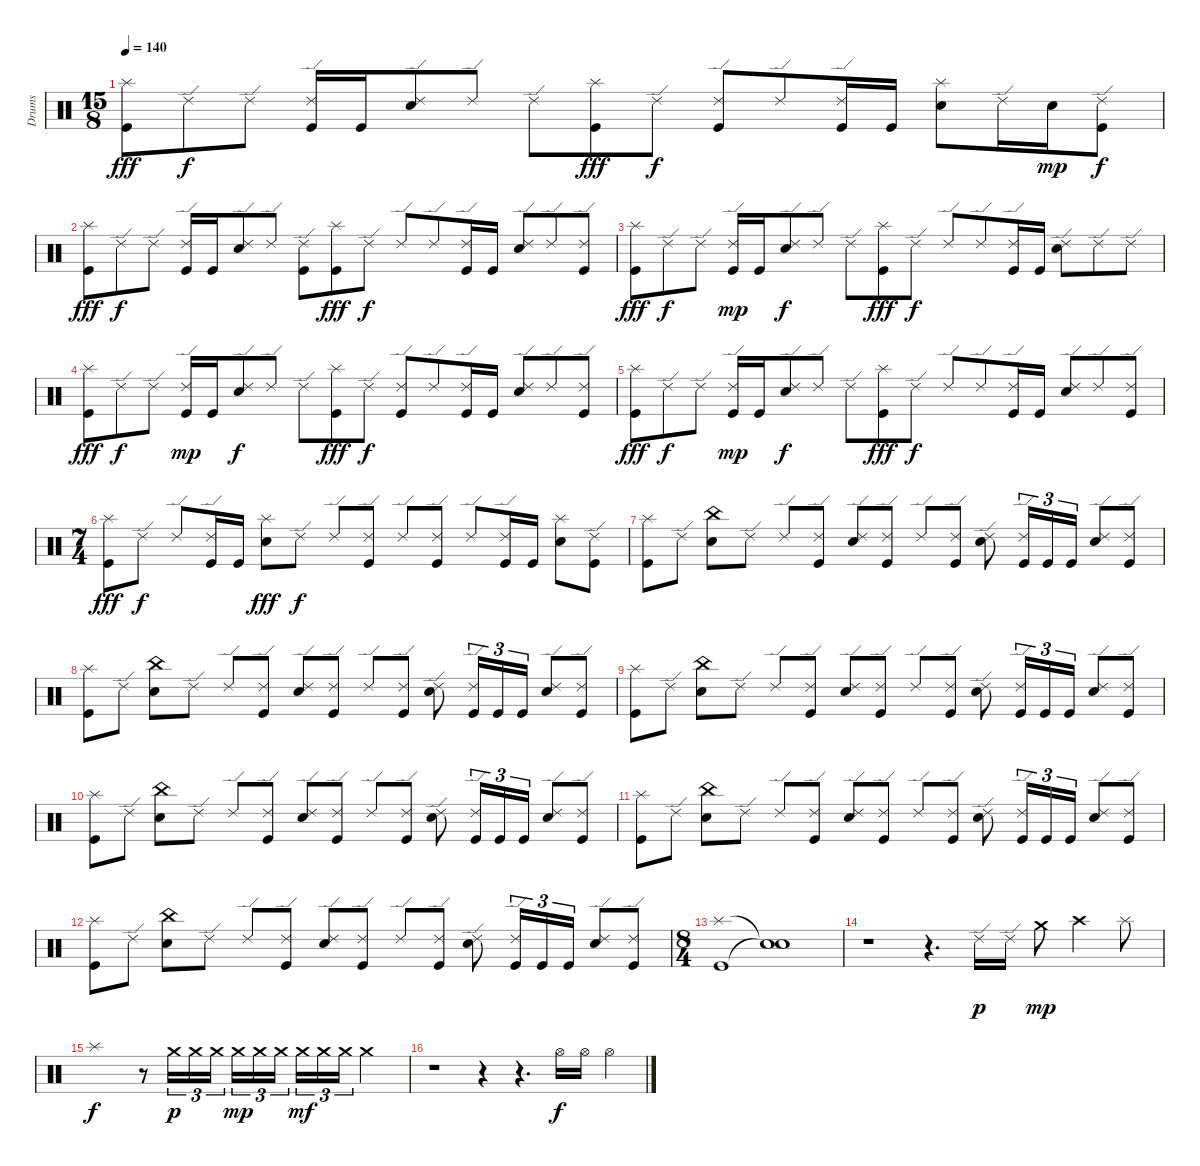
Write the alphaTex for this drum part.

\track ("Drums" "Drums") {instrument percussion}
\staff {score}
\articulation defaults
\ts (15 8)
\tempo 140
\clef neutral
\ks c
("Splash (hit)" "Kick (hit)").8{dy fff} "Ride (edge) 2".8{dy f} "Ride (edge) 2".8 ("Ride (edge) 2" "Kick (hit)").16 "Kick (hit)".16 ("Ride (edge) 2" "Snare (hit) 2").8 "Ride (edge) 2".8 "Ride (edge) 2".8 ("Splash (hit)" "Kick (hit)").8{dy fff} "Ride (edge) 2".8{dy f} ("Ride (edge) 2" "Kick (hit)").8 "Ride (edge) 2".8 ("Ride (edge) 2" "Kick (hit)").16 "Kick (hit)".16 ("Splash (hit)" "Snare (hit) 2").8 "Ride (edge) 2".16 "Snare (hit) 2".16{dy mp} ("Ride (edge) 2" "Kick (hit)").8{dy f} |
("Splash (hit)" "Kick (hit)").8{dy fff} "Ride (edge) 2".8{dy f} "Ride (edge) 2".8 ("Ride (edge) 2" "Kick (hit)").16 "Kick (hit)".16 ("Ride (edge) 2" "Snare (hit) 2").8 "Ride (edge) 2".8 ("Ride (edge) 2" "Kick (hit)").8 ("Splash (hit)" "Kick (hit)").8{dy fff} "Ride (edge) 2".8{dy f} "Ride (edge) 2".8 "Ride (edge) 2".8 ("Ride (edge) 2" "Kick (hit)").16 "Kick (hit)".16 ("Ride (edge) 2" "Snare (hit) 2").8 "Ride (edge) 2".8 ("Ride (edge) 2" "Kick (hit)").8 |
("Splash (hit)" "Kick (hit)").8{dy fff} "Ride (edge) 2".8{dy f} "Ride (edge) 2".8 ("Ride (edge) 2" "Kick (hit)").16{dy mp} "Kick (hit)".16 ("Ride (edge) 2" "Snare (hit) 2").8{dy f} "Ride (edge) 2".8 "Ride (edge) 2".8 ("Splash (hit)" "Kick (hit)").8{dy fff} "Ride (edge) 2".8{dy f} "Ride (edge) 2".8 "Ride (edge) 2".8 ("Ride (edge) 2" "Kick (hit)").16 "Kick (hit)".16 ("Ride (edge) 2" "Snare (hit) 2").8 "Ride (edge) 2".8 "Ride (edge) 2".8 |
("Splash (hit)" "Kick (hit)").8{dy fff} "Ride (edge) 2".8{dy f} "Ride (edge) 2".8 ("Ride (edge) 2" "Kick (hit)").16{dy mp} "Kick (hit)".16 ("Ride (edge) 2" "Snare (hit) 2").8{dy f} "Ride (edge) 2".8 "Ride (edge) 2".8 ("Splash (hit)" "Kick (hit)").8{dy fff} "Ride (edge) 2".8{dy f} ("Ride (edge) 2" "Kick (hit)").8 "Ride (edge) 2".8 ("Ride (edge) 2" "Kick (hit)").16 "Kick (hit)".16 ("Ride (edge) 2" "Snare (hit) 2").8 "Ride (edge) 2".8 ("Ride (edge) 2" "Kick (hit)").8 |
("Splash (hit)" "Kick (hit)").8{dy fff} "Ride (edge) 2".8{dy f} "Ride (edge) 2".8 ("Ride (edge) 2" "Kick (hit)").16{dy mp} "Kick (hit)".16 ("Ride (edge) 2" "Snare (hit) 2").8{dy f} "Ride (edge) 2".8 "Ride (edge) 2".8 ("Splash (hit)" "Kick (hit)").8{dy fff} "Ride (edge) 2".8{dy f} "Ride (edge) 2".8 "Ride (edge) 2".8 ("Ride (edge) 2" "Kick (hit)").16 "Kick (hit)".16 ("Ride (edge) 2" "Snare (hit) 2").8 "Ride (edge) 2".8 ("Ride (edge) 2" "Kick (hit)").8 |
\ts (7 4)
("Splash (hit)" "Kick (hit)").8{dy fff} "Ride (edge) 2".8{dy f} "Ride (edge) 2".8 ("Ride (edge) 2" "Kick (hit)").16 "Kick (hit)".16 ("Splash (hit)" "Snare (hit) 2").8{dy fff} "Ride (edge) 2".8{dy f} "Ride (edge) 2".8 ("Ride (edge) 2" "Kick (hit)").8 "Ride (edge) 2".8 ("Ride (edge) 2" "Kick (hit)").8 "Ride (edge) 2".8 ("Ride (edge) 2" "Kick (hit)").16 "Kick (hit)".16 ("Splash (hit)" "Snare (hit) 2").8 ("Ride (edge) 2" "Kick (hit)").8 |
("Splash (hit)" "Kick (hit)").8 "Ride (edge) 2".8 ("China (hit)" "Snare (hit) 2").8 "Ride (edge) 2".8 "Ride (edge) 2".8 ("Ride (edge) 2" "Kick (hit)").8 ("Ride (edge) 2" "Snare (hit) 2").8 ("Ride (edge) 2" "Kick (hit)").8 "Ride (edge) 2".8 ("Ride (edge) 2" "Kick (hit)").8 ("Ride (edge) 2" "Snare (hit) 2").8 ("Ride (edge) 2" "Kick (hit)").16{tu (3 2)} "Kick (hit)".16{tu (3 2)} "Kick (hit)".16{tu (3 2)} ("Ride (edge) 2" "Snare (hit) 2").8 ("Ride (edge) 2" "Kick (hit)").8 |
("Splash (hit)" "Kick (hit)").8 "Ride (edge) 2".8 ("China (hit)" "Snare (hit) 2").8 "Ride (edge) 2".8 "Ride (edge) 2".8 ("Ride (edge) 2" "Kick (hit)").8 ("Ride (edge) 2" "Snare (hit) 2").8 ("Ride (edge) 2" "Kick (hit)").8 "Ride (edge) 2".8 ("Ride (edge) 2" "Kick (hit)").8 ("Ride (edge) 2" "Snare (hit) 2").8 ("Ride (edge) 2" "Kick (hit)").16{tu (3 2)} "Kick (hit)".16{tu (3 2)} "Kick (hit)".16{tu (3 2)} ("Ride (edge) 2" "Snare (hit) 2").8 ("Ride (edge) 2" "Kick (hit)").8 |
("Splash (hit)" "Kick (hit)").8 "Ride (edge) 2".8 ("China (hit)" "Snare (hit) 2").8 "Ride (edge) 2".8 "Ride (edge) 2".8 ("Ride (edge) 2" "Kick (hit)").8 ("Ride (edge) 2" "Snare (hit) 2").8 ("Ride (edge) 2" "Kick (hit)").8 "Ride (edge) 2".8 ("Ride (edge) 2" "Kick (hit)").8 ("Ride (edge) 2" "Snare (hit) 2").8 ("Ride (edge) 2" "Kick (hit)").16{tu (3 2)} "Kick (hit)".16{tu (3 2)} "Kick (hit)".16{tu (3 2)} ("Ride (edge) 2" "Snare (hit) 2").8 ("Ride (edge) 2" "Kick (hit)").8 |
("Splash (hit)" "Kick (hit)").8 "Ride (edge) 2".8 ("China (hit)" "Snare (hit) 2").8 "Ride (edge) 2".8 "Ride (edge) 2".8 ("Ride (edge) 2" "Kick (hit)").8 ("Ride (edge) 2" "Snare (hit) 2").8 ("Ride (edge) 2" "Kick (hit)").8 "Ride (edge) 2".8 ("Ride (edge) 2" "Kick (hit)").8 ("Ride (edge) 2" "Snare (hit) 2").8 ("Ride (edge) 2" "Kick (hit)").16{tu (3 2)} "Kick (hit)".16{tu (3 2)} "Kick (hit)".16{tu (3 2)} ("Ride (edge) 2" "Snare (hit) 2").8 ("Ride (edge) 2" "Kick (hit)").8 |
("Splash (hit)" "Kick (hit)").8 "Ride (edge) 2".8 ("China (hit)" "Snare (hit) 2").8 "Ride (edge) 2".8 "Ride (edge) 2".8 ("Ride (edge) 2" "Kick (hit)").8 ("Ride (edge) 2" "Snare (hit) 2").8 ("Ride (edge) 2" "Kick (hit)").8 "Ride (edge) 2".8 ("Ride (edge) 2" "Kick (hit)").8 ("Ride (edge) 2" "Snare (hit) 2").8 ("Ride (edge) 2" "Kick (hit)").16{tu (3 2)} "Kick (hit)".16{tu (3 2)} "Kick (hit)".16{tu (3 2)} ("Ride (edge) 2" "Snare (hit) 2").8 ("Ride (edge) 2" "Kick (hit)").8 |
("Splash (hit)" "Kick (hit)").8 "Ride (edge) 2".8 ("China (hit)" "Snare (hit) 2").8 "Ride (edge) 2".8 "Ride (edge) 2".8 ("Ride (edge) 2" "Kick (hit)").8 ("Ride (edge) 2" "Snare (hit) 2").8 ("Ride (edge) 2" "Kick (hit)").8 "Ride (edge) 2".8 ("Ride (edge) 2" "Kick (hit)").8 ("Ride (edge) 2" "Snare (hit) 2").8 ("Ride (edge) 2" "Kick (hit)").16{tu (3 2)} "Kick (hit)".16{tu (3 2)} "Kick (hit)".16{tu (3 2)} ("Ride (edge) 2" "Snare (hit) 2").8 ("Ride (edge) 2" "Kick (hit)").8 |
\ts (8 4)
("Splash (hit)" "Kick (hit)").1 ("Snare (hit)"{t} "Snare (hit)"{t}).1 |
r.1 r.4{d} "Ride (edge) 2".16{dy p} "Ride (edge) 2".16 "Crash medium (hit)".8{dy mp} "Crash high (hit)".4 "Splash (hit)".8 |
"Splash (hit)".1{dy f} r.8 "Crash medium (hit)".16{tu (3 2) dy p} "Crash medium (hit)".16{tu (3 2)} "Crash medium (hit)".16{tu (3 2)} "Crash medium (hit)".16{tu (3 2) dy mp} "Crash medium (hit)".16{tu (3 2)} "Crash medium (hit)".16{tu (3 2)} "Crash medium (hit)".16{tu (3 2) dy mf} "Crash medium (hit)".16{tu (3 2)} "Crash medium (hit)".16{tu (3 2)} "Crash medium (hit)".2 |
r.1 r.4 r.4{d} "Hi-Hat (open)".16{dy f} "Hi-Hat (open)".16 "Hi-Hat (open)".4
